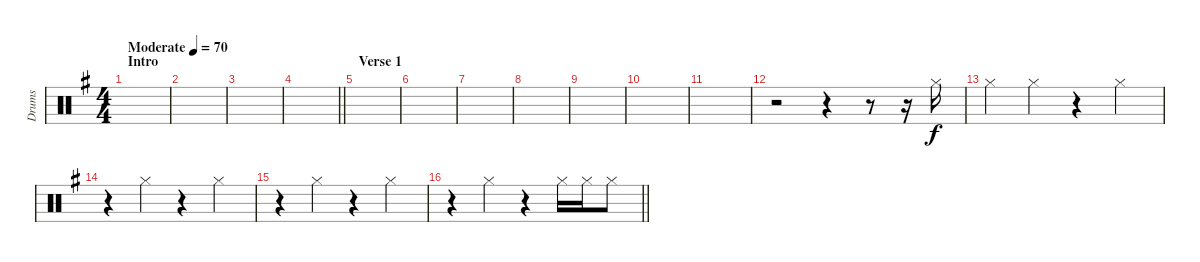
\track ("Drums" "Drums") {instrument percussion}
\staff {score}
\articulation defaults
\ts (4 4)
\section ("" "Intro")
\tempo (70 "Moderate")
\clef neutral
\ks g
|
|
|
\barLineRight lightlight
|
\section ("" "Verse 1")
|
|
|
|
|
|
|
r.2 r.4 r.8 r.16 "Hi-Hat (closed)".16 |
"Hi-Hat (closed)".4 "Hi-Hat (closed)".4 r.4 "Hi-Hat (closed)".4 |
r.4 "Hi-Hat (closed)".4 r.4 "Hi-Hat (closed)".4 |
r.4 "Hi-Hat (closed)".4 r.4 "Hi-Hat (closed)".4 |
\barLineRight lightlight
r.4 "Hi-Hat (closed)".4 r.4 "Hi-Hat (closed)".16 "Hi-Hat (closed)".16 "Hi-Hat (closed)".8
